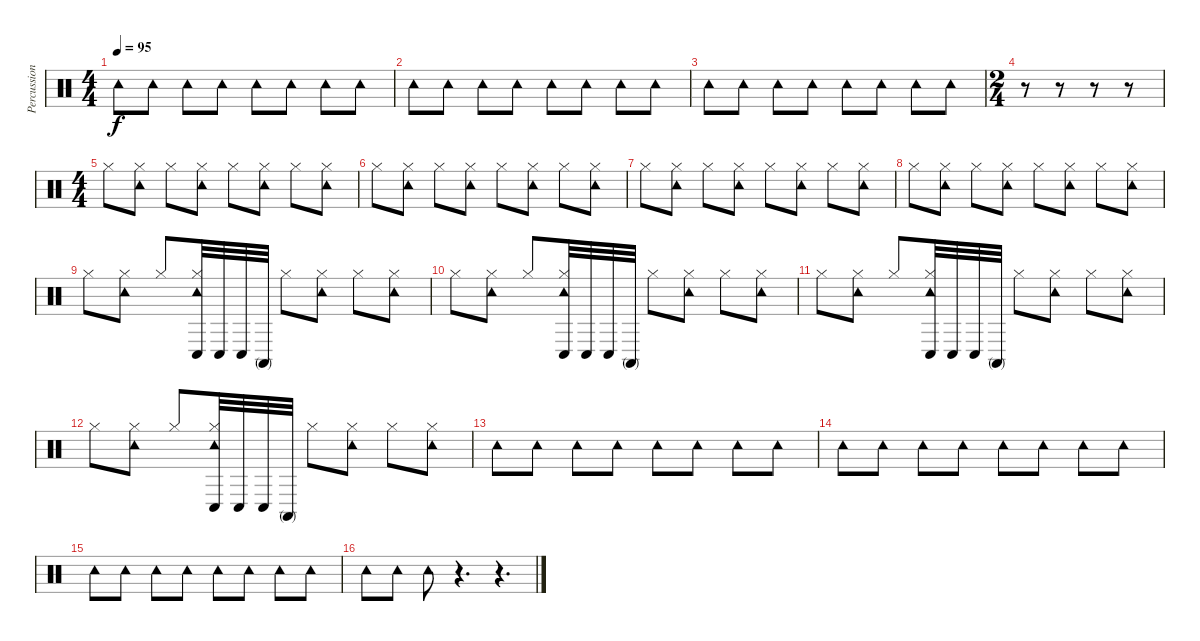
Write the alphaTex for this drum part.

\track ("Percussion" "Percussion") {instrument percussion}
\staff {score}
\articulation defaults
\ts (4 4)
\tempo 95
\clef neutral
\ks c "Tambourine (hit)".8{dy f} "Tambourine (hit)".8 "Tambourine (hit)".8 "Tambourine (hit)".8 "Tambourine (hit)".8 "Tambourine (hit)".8 "Tambourine (hit)".8 "Tambourine (hit)".8
|
"Tambourine (hit)".8 "Tambourine (hit)".8 "Tambourine (hit)".8 "Tambourine (hit)".8 "Tambourine (hit)".8 "Tambourine (hit)".8 "Tambourine (hit)".8 "Tambourine (hit)".8 |
"Tambourine (hit)".8 "Tambourine (hit)".8 "Tambourine (hit)".8 "Tambourine (hit)".8 "Tambourine (hit)".8 "Tambourine (hit)".8 "Tambourine (hit)".8 "Tambourine (hit)".8 |
\ts (2 4)
r.8 r.8 r.8 r.8 |
\ts (4 4)
"Hi-Hat (closed)".8 ("Tambourine (hit)" "Hi-Hat (closed)").8 "Hi-Hat (closed)".8 ("Tambourine (hit)" "Hi-Hat (closed)").8 "Hi-Hat (closed)".8 ("Tambourine (hit)" "Hi-Hat (closed)").8 "Hi-Hat (closed)".8 ("Tambourine (hit)" "Hi-Hat (closed)").8 |
"Hi-Hat (closed)".8 ("Tambourine (hit)" "Hi-Hat (closed)").8 "Hi-Hat (closed)".8 ("Tambourine (hit)" "Hi-Hat (closed)").8 "Hi-Hat (closed)".8 ("Tambourine (hit)" "Hi-Hat (closed)").8 "Hi-Hat (closed)".8 ("Tambourine (hit)" "Hi-Hat (closed)").8 |
"Hi-Hat (closed)".8 ("Tambourine (hit)" "Hi-Hat (closed)").8 "Hi-Hat (closed)".8 ("Tambourine (hit)" "Hi-Hat (closed)").8 "Hi-Hat (closed)".8 ("Tambourine (hit)" "Hi-Hat (closed)").8 "Hi-Hat (closed)".8 ("Tambourine (hit)" "Hi-Hat (closed)").8 |
"Hi-Hat (closed)".8 ("Tambourine (hit)" "Hi-Hat (closed)").8 "Hi-Hat (closed)".8 ("Tambourine (hit)" "Hi-Hat (closed)").8 "Hi-Hat (closed)".8 ("Tambourine (hit)" "Hi-Hat (closed)").8 "Hi-Hat (closed)".8 ("Tambourine (hit)" "Hi-Hat (closed)").8 |
"Hi-Hat (closed)".8 ("Tambourine (hit)" "Hi-Hat (closed)").8 "Hi-Hat (closed)".8 ("Tambourine (hit)" "Conga low (hit)" "Hi-Hat (closed)").32 "Conga low (hit)".32 "Conga low (hit)".32 "Conga high (mute)".32 "Hi-Hat (closed)".8 ("Tambourine (hit)" "Hi-Hat (closed)").8 "Hi-Hat (closed)".8 ("Tambourine (hit)" "Hi-Hat (closed)").8 |
"Hi-Hat (closed)".8 ("Tambourine (hit)" "Hi-Hat (closed)").8 "Hi-Hat (closed)".8 ("Tambourine (hit)" "Conga low (hit)" "Hi-Hat (closed)").32 "Conga low (hit)".32 "Conga low (hit)".32 "Conga high (mute)".32 "Hi-Hat (closed)".8 ("Tambourine (hit)" "Hi-Hat (closed)").8 "Hi-Hat (closed)".8 ("Tambourine (hit)" "Hi-Hat (closed)").8 |
"Hi-Hat (closed)".8 ("Tambourine (hit)" "Hi-Hat (closed)").8 "Hi-Hat (closed)".8 ("Tambourine (hit)" "Conga low (hit)" "Hi-Hat (closed)").32 "Conga low (hit)".32 "Conga low (hit)".32 "Conga high (mute)".32 "Hi-Hat (closed)".8 ("Tambourine (hit)" "Hi-Hat (closed)").8 "Hi-Hat (closed)".8 ("Tambourine (hit)" "Hi-Hat (closed)").8 |
"Hi-Hat (closed)".8 ("Tambourine (hit)" "Hi-Hat (closed)").8 "Hi-Hat (closed)".8 ("Tambourine (hit)" "Conga low (hit)" "Hi-Hat (closed)").32 "Conga low (hit)".32 "Conga low (hit)".32 "Conga high (mute)".32 "Hi-Hat (closed)".8 ("Tambourine (hit)" "Hi-Hat (closed)").8 "Hi-Hat (closed)".8 ("Tambourine (hit)" "Hi-Hat (closed)").8 |
"Tambourine (hit)".8 "Tambourine (hit)".8 "Tambourine (hit)".8 "Tambourine (hit)".8 "Tambourine (hit)".8 "Tambourine (hit)".8 "Tambourine (hit)".8 "Tambourine (hit)".8 |
"Tambourine (hit)".8 "Tambourine (hit)".8 "Tambourine (hit)".8 "Tambourine (hit)".8 "Tambourine (hit)".8 "Tambourine (hit)".8 "Tambourine (hit)".8 "Tambourine (hit)".8 |
"Tambourine (hit)".8 "Tambourine (hit)".8 "Tambourine (hit)".8 "Tambourine (hit)".8 "Tambourine (hit)".8 "Tambourine (hit)".8 "Tambourine (hit)".8 "Tambourine (hit)".8 |
"Tambourine (hit)".8 "Tambourine (hit)".8 "Tambourine (hit)".8 r.4{d} r.4{d tu (3 2)}
